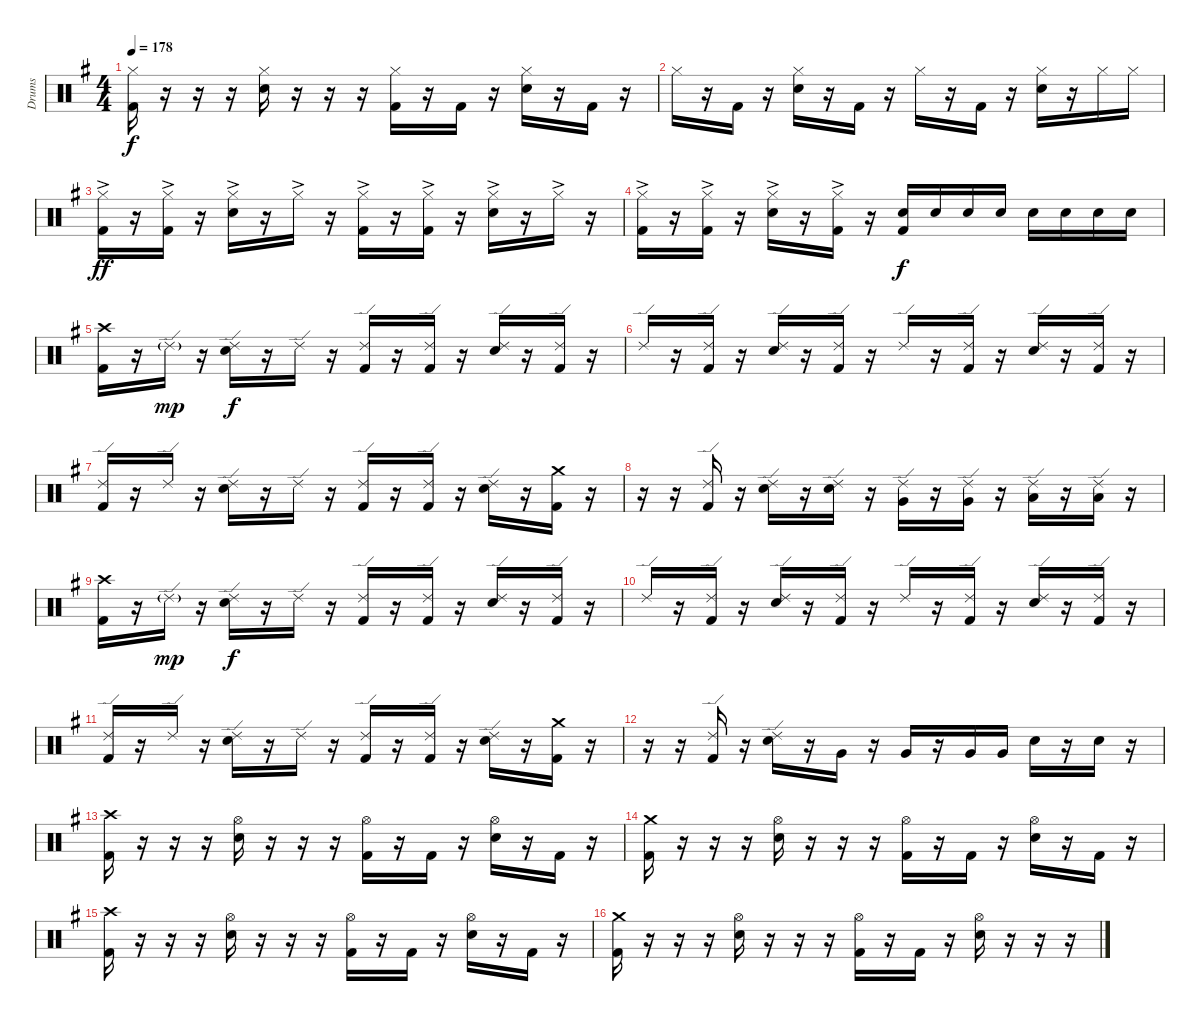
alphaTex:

\track ("Drums" "Drums") {instrument percussion}
\staff {score}
\articulation defaults
\ts (4 4)
\tempo 178
\clef neutral
\ks g
("Hi-Hat (closed)" "Kick (hit) 2").16{dy f} r.16 r.16 r.16 ("Hi-Hat (closed)" "Electric Snare (hit)").16 r.16 r.16 r.16 ("Hi-Hat (closed)" "Kick (hit) 2").16 r.16 "Kick (hit) 2".16 r.16 ("Hi-Hat (closed)" "Electric Snare (hit)").16 r.16 "Kick (hit) 2".16 r.16 |
"Hi-Hat (closed)".16 r.16 "Kick (hit) 2".16 r.16 ("Hi-Hat (closed)" "Electric Snare (hit)").16 r.16 "Kick (hit) 2".16 r.16 "Hi-Hat (closed)".16 r.16 "Kick (hit) 2".16 r.16 ("Hi-Hat (closed)" "Electric Snare (hit)").16 r.16 "Hi-Hat (closed)".16 "Hi-Hat (closed)".16 |
("Hi-Hat (closed)"{ac} "Kick (hit) 2").16{dy ff} r.16 ("Hi-Hat (closed)"{ac} "Kick (hit) 2").16 r.16 ("Hi-Hat (closed)"{ac} "Electric Snare (hit)").16 r.16 "Hi-Hat (closed)"{ac}.16 r.16 ("Hi-Hat (closed)"{ac} "Kick (hit) 2").16 r.16 ("Hi-Hat (closed)"{ac} "Kick (hit) 2").16 r.16 ("Hi-Hat (closed)"{ac} "Electric Snare (hit)").16 r.16 "Hi-Hat (closed)"{ac}.16 r.16 |
("Hi-Hat (closed)"{ac} "Kick (hit) 2").16 r.16 ("Hi-Hat (closed)"{ac} "Kick (hit) 2").16 r.16 ("Hi-Hat (closed)"{ac} "Electric Snare (hit)").16 r.16 ("Hi-Hat (closed)"{ac} "Kick (hit) 2").16 r.16 ("Electric Snare (hit)" "Kick (hit) 2").16{dy f} "Electric Snare (hit)".16 "Electric Snare (hit)".16 "Electric Snare (hit)".16 "Electric Snare (hit)".16 "Electric Snare (hit)".16 "Electric Snare (hit)".16 "Electric Snare (hit)".16 |
("Crash high (hit)" "Kick (hit) 2").16 r.16 "Ride (edge) 2"{g}.16{dy mp} r.16 ("Ride (edge) 2" "Electric Snare (hit)").16{dy f} r.16 "Ride (edge) 2".16 r.16 ("Ride (edge) 2" "Kick (hit) 2").16 r.16 ("Ride (edge) 2" "Kick (hit) 2").16 r.16 ("Ride (edge) 2" "Electric Snare (hit)").16 r.16 ("Ride (edge) 2" "Kick (hit) 2").16 r.16 |
"Ride (edge) 2".16 r.16 ("Ride (edge) 2" "Kick (hit) 2").16 r.16 ("Ride (edge) 2" "Electric Snare (hit)").16 r.16 ("Ride (edge) 2" "Kick (hit) 2").16 r.16 "Ride (edge) 2".16 r.16 ("Ride (edge) 2" "Kick (hit) 2").16 r.16 ("Ride (edge) 2" "Electric Snare (hit)").16 r.16 ("Ride (edge) 2" "Kick (hit) 2").16 r.16 |
("Ride (edge) 2" "Kick (hit) 2").16 r.16 "Ride (edge) 2".16 r.16 ("Ride (edge) 2" "Electric Snare (hit)").16 r.16 "Ride (edge) 2".16 r.16 ("Ride (edge) 2" "Kick (hit) 2").16 r.16 ("Ride (edge) 2" "Kick (hit) 2").16 r.16 ("Ride (edge) 2" "Electric Snare (hit)").16 r.16 ("Crash medium (hit)" "Kick (hit) 2").16 r.16 |
r.16 r.16 ("Ride (edge) 2" "Kick (hit) 2").16 r.16 ("Ride (edge) 2" "Electric Snare (hit)").16 r.16 ("Ride (edge) 2" "Electric Snare (hit)").16 r.16 ("Ride (edge) 2" "Very Low Tom (hit)").16 r.16 ("Ride (edge) 2" "Very Low Tom (hit)").16 r.16 ("Ride (edge) 2" "Low Floor Tom (hit)").16 r.16 ("Ride (edge) 2" "Low Floor Tom (hit)").16 r.16 |
("Crash high (hit)" "Kick (hit) 2").16 r.16 "Ride (edge) 2"{g}.16{dy mp} r.16 ("Ride (edge) 2" "Electric Snare (hit)").16{dy f} r.16 "Ride (edge) 2".16 r.16 ("Ride (edge) 2" "Kick (hit) 2").16 r.16 ("Ride (edge) 2" "Kick (hit) 2").16 r.16 ("Ride (edge) 2" "Electric Snare (hit)").16 r.16 ("Ride (edge) 2" "Kick (hit) 2").16 r.16 |
"Ride (edge) 2".16 r.16 ("Ride (edge) 2" "Kick (hit) 2").16 r.16 ("Ride (edge) 2" "Electric Snare (hit)").16 r.16 ("Ride (edge) 2" "Kick (hit) 2").16 r.16 "Ride (edge) 2".16 r.16 ("Ride (edge) 2" "Kick (hit) 2").16 r.16 ("Ride (edge) 2" "Electric Snare (hit)").16 r.16 ("Ride (edge) 2" "Kick (hit) 2").16 r.16 |
("Ride (edge) 2" "Kick (hit) 2").16 r.16 "Ride (edge) 2".16 r.16 ("Ride (edge) 2" "Electric Snare (hit)").16 r.16 "Ride (edge) 2".16 r.16 ("Ride (edge) 2" "Kick (hit) 2").16 r.16 ("Ride (edge) 2" "Kick (hit) 2").16 r.16 ("Ride (edge) 2" "Electric Snare (hit)").16 r.16 ("Crash medium (hit)" "Kick (hit) 2").16 r.16 |
r.16 r.16 ("Ride (edge) 2" "Kick (hit) 2").16 r.16 ("Ride (edge) 2" "Electric Snare (hit)").16 r.16 "Very Low Tom (hit)".16 r.16 "Very Low Tom (hit)".16 r.16 "Very Low Tom (hit)".16 "Very Low Tom (hit)".16 "Electric Snare (hit)".16 r.16 "Electric Snare (hit)".16 r.16 |
("Crash high (hit)" "Kick (hit) 2").16 r.16 r.16 r.16 ("Hi-Hat (open)" "Electric Snare (hit)").16 r.16 r.16 r.16 ("Hi-Hat (open)" "Kick (hit) 2").16 r.16 "Kick (hit) 2".16 r.16 ("Hi-Hat (open)" "Electric Snare (hit)").16 r.16 "Kick (hit) 2".16 r.16 |
("Crash medium (hit)" "Kick (hit) 2").16 r.16 r.16 r.16 ("Hi-Hat (open)" "Electric Snare (hit)").16 r.16 r.16 r.16 ("Hi-Hat (open)" "Kick (hit) 2").16 r.16 "Kick (hit) 2".16 r.16 ("Hi-Hat (open)" "Electric Snare (hit)").16 r.16 "Kick (hit) 2".16 r.16 |
("Crash high (hit)" "Kick (hit) 2").16 r.16 r.16 r.16 ("Hi-Hat (open)" "Electric Snare (hit)").16 r.16 r.16 r.16 ("Hi-Hat (open)" "Kick (hit) 2").16 r.16 "Kick (hit) 2".16 r.16 ("Hi-Hat (open)" "Electric Snare (hit)").16 r.16 "Kick (hit) 2".16 r.16 |
("Crash medium (hit)" "Kick (hit) 2").16 r.16 r.16 r.16 ("Hi-Hat (open)" "Electric Snare (hit)").16 r.16 r.16 r.16 ("Hi-Hat (open)" "Kick (hit) 2").16 r.16 "Kick (hit) 2".16 r.16 ("Hi-Hat (open)" "Electric Snare (hit)").16 r.16 r.16 r.16
